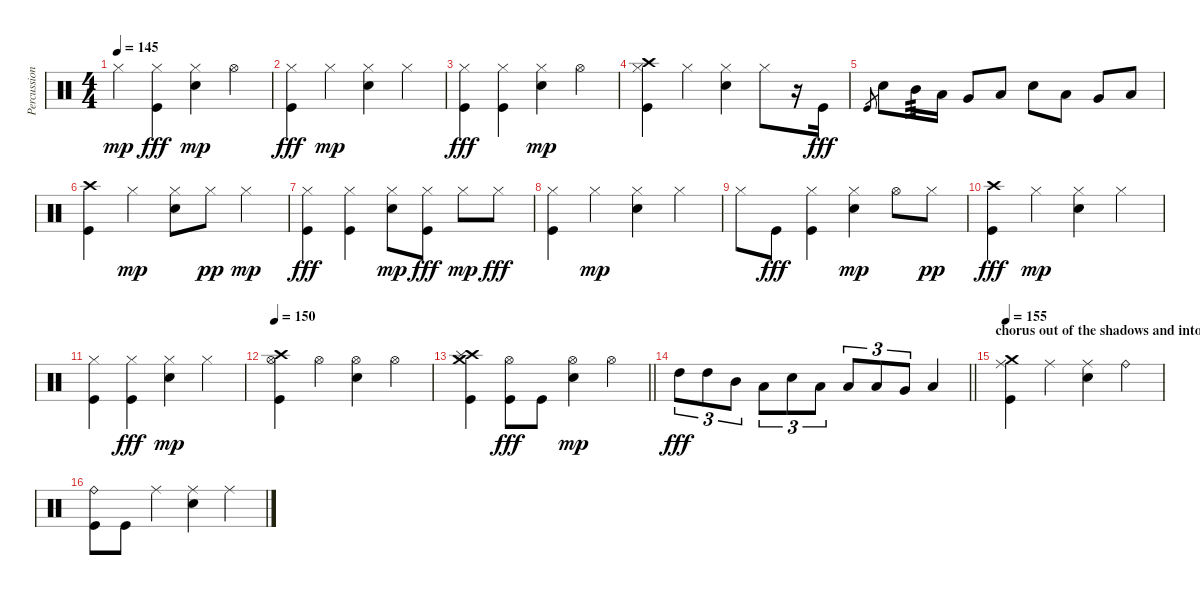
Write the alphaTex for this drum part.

\track ("Percussioni" "Percussion") {instrument percussion}
\staff {score}
\articulation defaults
\ts (4 4)
\tempo 145
\clef neutral
\ks c "Hi-Hat (closed)".4{dy mp}
("Hi-Hat (closed)" "Kick (hit)").4{dy fff} ("Hi-Hat (closed)" "Snare (hit) 2").4{dy mp} "Hi-Hat (open)".4 |
("Hi-Hat (closed)" "Kick (hit)").4{dy fff} "Hi-Hat (closed)".4{dy mp} ("Hi-Hat (closed)" "Snare (hit) 2").4 "Hi-Hat (closed)".4 |
("Hi-Hat (closed)" "Kick (hit)").4{dy fff} ("Hi-Hat (closed)" "Kick (hit)").4 ("Hi-Hat (closed)" "Snare (hit) 2").4{dy mp} "Hi-Hat (open)".4 |
("Crash high (hit)" "Hi-Hat (closed)" "Kick (hit)").4 "Hi-Hat (closed)".4 ("Hi-Hat (closed)" "Snare (hit) 2").4 "Hi-Hat (closed)".8 r.16 "Kick (hit)".16{dy fff} |
"Kick (hit)".8{gr} "Snare (hit) 2".8 "Mid Tom (hit)".16{tp 3} "Low Tom (hit)".16 "Very Low Tom (hit)".8 "Low Floor Tom (hit)".8 "Snare (hit) 2".8 "Low Tom (hit)".8 "Very Low Tom (hit)".8 "Low Floor Tom (hit)".8 |
("Crash high (hit)" "Kick (hit)").4 "Hi-Hat (closed)".4{dy mp} ("Hi-Hat (closed)" "Snare (hit) 2").8 "Hi-Hat (closed)".8{dy pp} "Hi-Hat (closed)".4{dy mp} |
("Hi-Hat (closed)" "Kick (hit)").4{dy fff} ("Hi-Hat (closed)" "Kick (hit)").4 ("Hi-Hat (closed)" "Snare (hit) 2").8{dy mp} ("Hi-Hat (closed)" "Kick (hit)").8{dy fff} "Hi-Hat (closed)".8{dy mp} "Hi-Hat (closed)".8{dy fff} |
("Hi-Hat (closed)" "Kick (hit)").4 "Hi-Hat (closed)".4{dy mp} ("Hi-Hat (closed)" "Snare (hit) 2").4 "Hi-Hat (closed)".4 |
"Hi-Hat (closed)".8 "Kick (hit)".8{dy fff} ("Hi-Hat (closed)" "Kick (hit)").4 ("Hi-Hat (closed)" "Snare (hit) 2").4{dy mp} "Hi-Hat (open)".8 "Hi-Hat (closed)".8{dy pp} |
("Crash high (hit)" "Kick (hit)").4{dy fff} "Hi-Hat (closed)".4{dy mp} ("Hi-Hat (closed)" "Snare (hit) 2").4 "Hi-Hat (closed)".4 |
("Hi-Hat (closed)" "Kick (hit)").4 ("Hi-Hat (closed)" "Kick (hit)").4{dy fff} ("Hi-Hat (closed)" "Snare (hit) 2").4{dy mp} "Hi-Hat (closed)".4 |
\tempo 150
("Crash high (hit)" "Hi-Hat (open)" "Kick (hit)").4 "Hi-Hat (open)".4 ("Hi-Hat (open)" "Snare (hit) 2").4 "Hi-Hat (open)".4 |
\barLineRight lightlight
("Crash medium (hit)" "Crash high (hit)" "Splash (hit)" "Kick (hit)").4 ("Hi-Hat (open)" "Kick (hit)").8{dy fff} "Kick (hit)".8 ("Hi-Hat (open)" "Snare (hit) 2").4{dy mp} "Hi-Hat (open)".4 |
\barLineRight lightlight "High Tom (hit)".8{tu (3 2) dy fff} "High Tom (hit)".8{tu (3 2)} "Mid Tom (hit)".8{tu (3 2)} "Low Tom (hit)".8{tu (3 2)} "Snare (hit) 2".8{tu (3 2)} "Low Tom (hit)".8{tu (3 2)} "Low Tom (hit)".8{tu (3 2)} "Low Tom (hit)".8{tu (3 2)} "Very Low Tom (hit)".8{tu (3 2)} "Low Floor Tom (hit)".4
|
\section ("" "chorus out of the shadows and into the sun...")
\tempo 155
("Crash medium (hit)" "Ride (middle)" "Kick (hit)").4 "Ride (middle)".4 ("Ride (middle)" "Snare (hit) 2").4 "Ride (bell)".4 |
("Ride (bell)" "Kick (hit)").8 "Kick (hit)".8 "Ride (middle)".4 ("Ride (middle)" "Snare (hit) 2").4 "Ride (middle)".4
